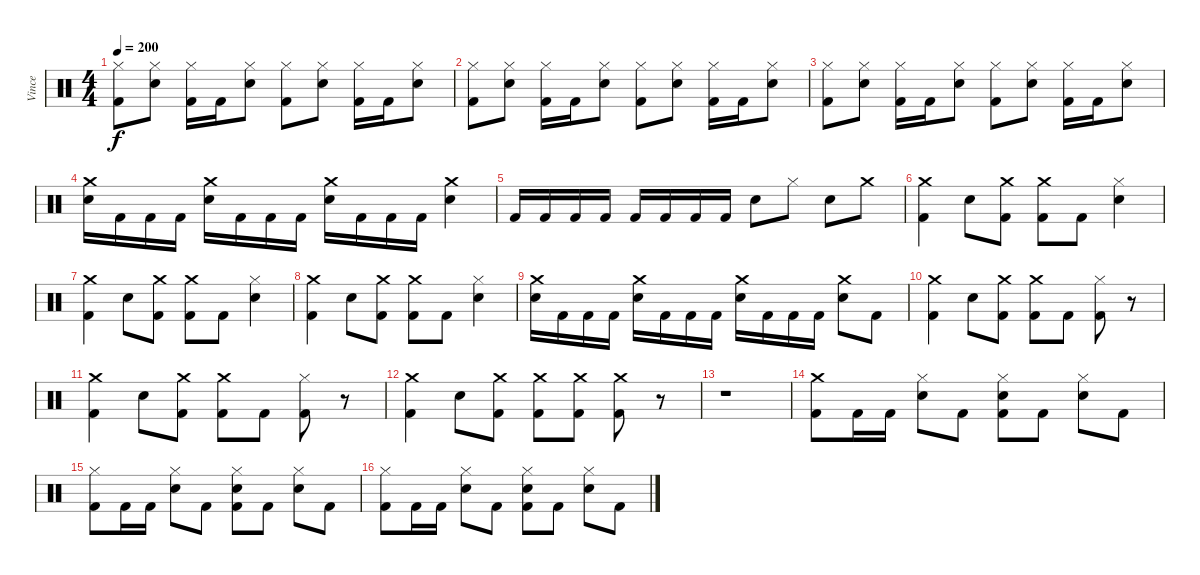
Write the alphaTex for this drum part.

\track ("Vince" "Vince") {instrument percussion}
\staff {score}
\articulation defaults
\ts (4 4)
\tempo 200
\clef neutral
\ks c
("Hi-Hat (closed)" "Kick (hit) 2").8{dy f} ("Hi-Hat (closed)" "Snare (hit) 2").8 ("Hi-Hat (closed)" "Kick (hit) 2").16 "Kick (hit) 2".16 ("Hi-Hat (closed)" "Snare (hit) 2").8 ("Hi-Hat (closed)" "Kick (hit) 2").8 ("Hi-Hat (closed)" "Snare (hit) 2").8 ("Hi-Hat (closed)" "Kick (hit) 2").16 "Kick (hit) 2".16 ("Hi-Hat (closed)" "Snare (hit) 2").8 |
("Hi-Hat (closed)" "Kick (hit) 2").8 ("Hi-Hat (closed)" "Snare (hit) 2").8 ("Hi-Hat (closed)" "Kick (hit) 2").16 "Kick (hit) 2".16 ("Hi-Hat (closed)" "Snare (hit) 2").8 ("Hi-Hat (closed)" "Kick (hit) 2").8 ("Hi-Hat (closed)" "Snare (hit) 2").8 ("Hi-Hat (closed)" "Kick (hit) 2").16 "Kick (hit) 2".16 ("Hi-Hat (closed)" "Snare (hit) 2").8 |
("Hi-Hat (closed)" "Kick (hit) 2").8 ("Hi-Hat (closed)" "Snare (hit) 2").8 ("Hi-Hat (closed)" "Kick (hit) 2").16 "Kick (hit) 2".16 ("Hi-Hat (closed)" "Snare (hit) 2").8 ("Hi-Hat (closed)" "Kick (hit) 2").8 ("Hi-Hat (closed)" "Snare (hit) 2").8 ("Hi-Hat (closed)" "Kick (hit) 2").16 "Kick (hit) 2".16 ("Hi-Hat (closed)" "Snare (hit) 2").8 |
("Crash medium (hit)" "Snare (hit) 2").16 "Kick (hit) 2".16 "Kick (hit) 2".16 "Kick (hit) 2".16 ("Crash medium (hit)" "Snare (hit) 2").16 "Kick (hit) 2".16 "Kick (hit) 2".16 "Kick (hit) 2".16 ("Crash medium (hit)" "Snare (hit) 2").16 "Kick (hit) 2".16 "Kick (hit) 2".16 "Kick (hit) 2".16 ("Crash medium (hit)" "Snare (hit) 2").4 |
"Kick (hit) 2".16 "Kick (hit) 2".16 "Kick (hit) 2".16 "Kick (hit) 2".16 "Kick (hit) 2".16 "Kick (hit) 2".16 "Kick (hit) 2".16 "Kick (hit) 2".16 "Snare (hit) 2".8 "Hi-Hat (closed)".8 "Snare (hit) 2".8 "Crash medium (hit)".8 |
("Crash medium (hit)" "Kick (hit) 2").4 "Snare (hit) 2".8 ("Crash medium (hit)" "Kick (hit) 2").8 ("Crash medium (hit)" "Kick (hit) 2").8 "Kick (hit) 2".8 ("Hi-Hat (closed)" "Snare (hit) 2").4 |
("Crash medium (hit)" "Kick (hit) 2").4 "Snare (hit) 2".8 ("Crash medium (hit)" "Kick (hit) 2").8 ("Crash medium (hit)" "Kick (hit) 2").8 "Kick (hit) 2".8 ("Hi-Hat (closed)" "Snare (hit) 2").4 |
("Crash medium (hit)" "Kick (hit) 2").4 "Snare (hit) 2".8 ("Crash medium (hit)" "Kick (hit) 2").8 ("Crash medium (hit)" "Kick (hit) 2").8 "Kick (hit) 2".8 ("Hi-Hat (closed)" "Snare (hit) 2").4 |
("Crash medium (hit)" "Snare (hit) 2").16 "Kick (hit) 2".16 "Kick (hit) 2".16 "Kick (hit) 2".16 ("Crash medium (hit)" "Snare (hit) 2").16 "Kick (hit) 2".16 "Kick (hit) 2".16 "Kick (hit) 2".16 ("Crash medium (hit)" "Snare (hit) 2").16 "Kick (hit) 2".16 "Kick (hit) 2".16 "Kick (hit) 2".16 ("Crash medium (hit)" "Snare (hit) 2").8 "Kick (hit) 2".8 |
("Crash medium (hit)" "Kick (hit) 2").4 "Snare (hit) 2".8 ("Crash medium (hit)" "Kick (hit) 2").8 ("Crash medium (hit)" "Kick (hit) 2").8 "Kick (hit) 2".8 ("Hi-Hat (closed)" "Kick (hit) 2").8 r.8 |
("Crash medium (hit)" "Kick (hit) 2").4 "Snare (hit) 2".8 ("Crash medium (hit)" "Kick (hit) 2").8 ("Crash medium (hit)" "Kick (hit) 2").8 "Kick (hit) 2".8 ("Hi-Hat (closed)" "Kick (hit) 2").8 r.8 |
("Crash medium (hit)" "Kick (hit) 2").4 "Snare (hit) 2".8 ("Crash medium (hit)" "Kick (hit) 2").8 ("Crash medium (hit)" "Kick (hit) 2").8 ("Crash medium (hit)" "Kick (hit) 2").8 ("Crash medium (hit)" "Kick (hit) 2").8 r.8 |
r.1 |
("Crash medium (hit)" "Kick (hit) 2").8 "Kick (hit) 2".16 "Kick (hit) 2".16 ("Hi-Hat (closed)" "Snare (hit) 2").8 "Kick (hit) 2".8 ("Hi-Hat (closed)" "Snare (hit) 2" "Kick (hit) 2").8 "Kick (hit) 2".8 ("Hi-Hat (closed)" "Snare (hit) 2").8 "Kick (hit) 2".8 |
("Hi-Hat (closed)" "Kick (hit) 2").8 "Kick (hit) 2".16 "Kick (hit) 2".16 ("Hi-Hat (closed)" "Snare (hit) 2").8 "Kick (hit) 2".8 ("Hi-Hat (closed)" "Snare (hit) 2" "Kick (hit) 2").8 "Kick (hit) 2".8 ("Hi-Hat (closed)" "Snare (hit) 2").8 "Kick (hit) 2".8 |
("Hi-Hat (closed)" "Kick (hit) 2").8 "Kick (hit) 2".16 "Kick (hit) 2".16 ("Hi-Hat (closed)" "Snare (hit) 2").8 "Kick (hit) 2".8 ("Hi-Hat (closed)" "Snare (hit) 2" "Kick (hit) 2").8 "Kick (hit) 2".8 ("Hi-Hat (closed)" "Snare (hit) 2").8 "Kick (hit) 2".8
